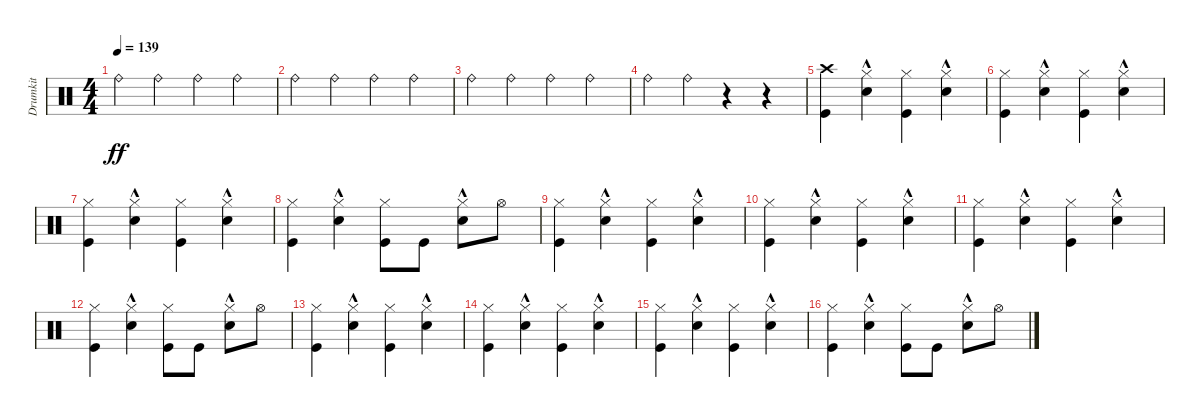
\track ("Drumkit" "Drumkit") {instrument percussion}
\staff {score}
\articulation defaults
\ts (4 4)
\tempo 139
\clef neutral
\ks c "Ride (bell)".4{dy ff} "Ride (bell)".4 "Ride (bell)".4 "Ride (bell)".4
|
"Ride (bell)".4 "Ride (bell)".4 "Ride (bell)".4 "Ride (bell)".4 |
"Ride (bell)".4 "Ride (bell)".4 "Ride (bell)".4 "Ride (bell)".4 |
"Ride (bell)".4 "Ride (bell)".4 r.4 r.4 |
("Kick (hit)" "Crash high (hit)").4 ("Snare (hit) 2"{hac} "Hi-Hat (closed)").4 ("Kick (hit)" "Hi-Hat (closed)").4 ("Snare (hit) 2"{hac} "Hi-Hat (closed)").4 |
("Hi-Hat (closed)" "Kick (hit)").4 ("Hi-Hat (closed)" "Snare (hit) 2"{hac}).4 ("Hi-Hat (closed)" "Kick (hit)").4 ("Hi-Hat (closed)" "Snare (hit) 2"{hac}).4 |
("Hi-Hat (closed)" "Kick (hit)").4 ("Hi-Hat (closed)" "Snare (hit) 2"{hac}).4 ("Hi-Hat (closed)" "Kick (hit)").4 ("Hi-Hat (closed)" "Snare (hit) 2"{hac}).4 |
("Hi-Hat (closed)" "Kick (hit)").4 ("Snare (hit) 2"{hac} "Hi-Hat (closed)").4 ("Hi-Hat (closed)" "Kick (hit)").8 "Kick (hit)".8 ("Snare (hit) 2"{hac} "Hi-Hat (closed)").8 "Hi-Hat (open)".8 |
("Kick (hit)" "Hi-Hat (closed)").4 ("Snare (hit) 2"{hac} "Hi-Hat (closed)").4 ("Kick (hit)" "Hi-Hat (closed)").4 ("Snare (hit) 2"{hac} "Hi-Hat (closed)").4 |
("Hi-Hat (closed)" "Kick (hit)").4 ("Hi-Hat (closed)" "Snare (hit) 2"{hac}).4 ("Hi-Hat (closed)" "Kick (hit)").4 ("Hi-Hat (closed)" "Snare (hit) 2"{hac}).4 |
("Hi-Hat (closed)" "Kick (hit)").4 ("Hi-Hat (closed)" "Snare (hit) 2"{hac}).4 ("Hi-Hat (closed)" "Kick (hit)").4 ("Hi-Hat (closed)" "Snare (hit) 2"{hac}).4 |
("Hi-Hat (closed)" "Kick (hit)").4 ("Snare (hit) 2"{hac} "Hi-Hat (closed)").4 ("Hi-Hat (closed)" "Kick (hit)").8 "Kick (hit)".8 ("Snare (hit) 2"{hac} "Hi-Hat (closed)").8 "Hi-Hat (open)".8 |
("Kick (hit)" "Hi-Hat (closed)").4 ("Snare (hit) 2"{hac} "Hi-Hat (closed)").4 ("Kick (hit)" "Hi-Hat (closed)").4 ("Snare (hit) 2"{hac} "Hi-Hat (closed)").4 |
("Hi-Hat (closed)" "Kick (hit)").4 ("Hi-Hat (closed)" "Snare (hit) 2"{hac}).4 ("Hi-Hat (closed)" "Kick (hit)").4 ("Hi-Hat (closed)" "Snare (hit) 2"{hac}).4 |
("Hi-Hat (closed)" "Kick (hit)").4 ("Hi-Hat (closed)" "Snare (hit) 2"{hac}).4 ("Hi-Hat (closed)" "Kick (hit)").4 ("Hi-Hat (closed)" "Snare (hit) 2"{hac}).4 |
("Hi-Hat (closed)" "Kick (hit)").4 ("Snare (hit) 2"{hac} "Hi-Hat (closed)").4 ("Hi-Hat (closed)" "Kick (hit)").8 "Kick (hit)".8 ("Snare (hit) 2"{hac} "Hi-Hat (closed)").8 "Hi-Hat (open)".8
